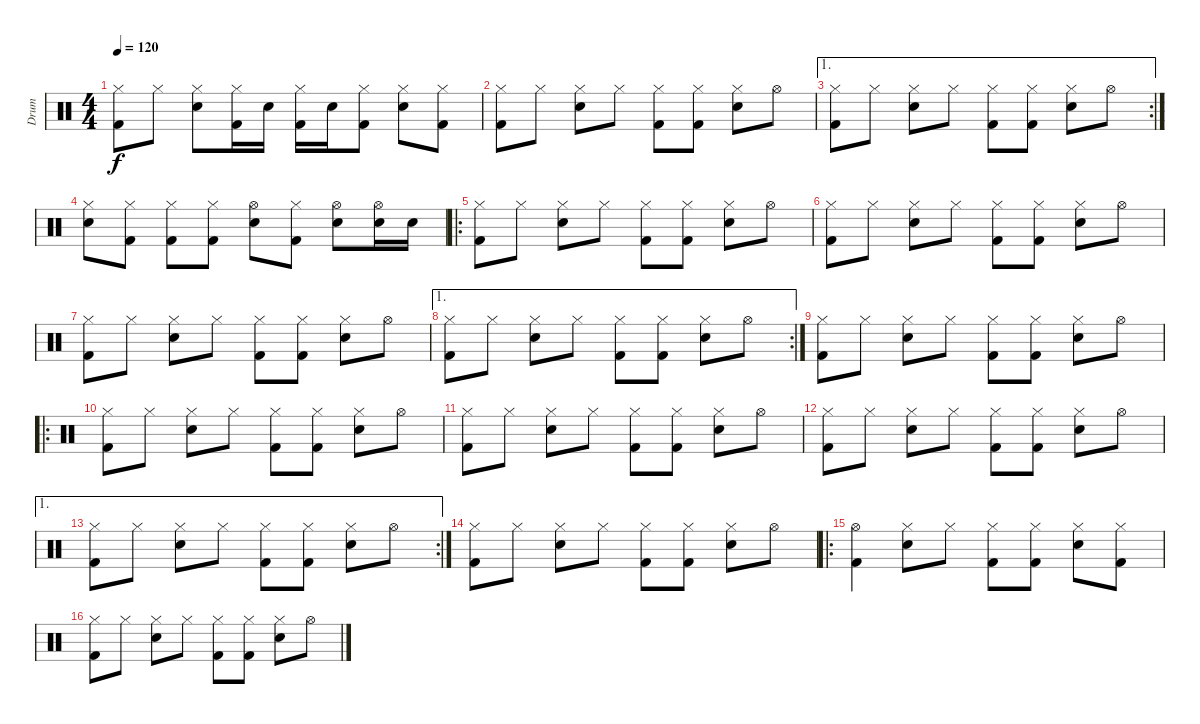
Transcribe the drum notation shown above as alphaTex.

\track ("Drum" "Drum") {instrument percussion}
\staff {score}
\articulation defaults
\ts (4 4)
\tempo 120
\clef neutral
\ks c
("Hi-Hat (closed)" "Kick (hit) 2").8{dy f} "Hi-Hat (closed)".8 ("Hi-Hat (closed)" "Snare (hit) 2").8 ("Hi-Hat (closed)" "Kick (hit) 2").16 "Snare (hit) 2".16 ("Hi-Hat (closed)" "Kick (hit) 2").16 "Snare (hit) 2".16 ("Hi-Hat (closed)" "Kick (hit) 2").8 ("Hi-Hat (closed)" "Snare (hit) 2").8 ("Hi-Hat (closed)" "Kick (hit) 2").8 |
("Hi-Hat (closed)" "Kick (hit) 2").8 "Hi-Hat (closed)".8 ("Hi-Hat (closed)" "Snare (hit) 2").8 "Hi-Hat (closed)".8 ("Hi-Hat (closed)" "Kick (hit) 2").8 ("Hi-Hat (closed)" "Kick (hit) 2").8 ("Hi-Hat (closed)" "Snare (hit) 2").8 "Hi-Hat (open)".8 |
\ae 1
\rc 2
("Hi-Hat (closed)" "Kick (hit) 2").8 "Hi-Hat (closed)".8 ("Hi-Hat (closed)" "Snare (hit) 2").8 "Hi-Hat (closed)".8 ("Hi-Hat (closed)" "Kick (hit) 2").8 ("Hi-Hat (closed)" "Kick (hit) 2").8 ("Hi-Hat (closed)" "Snare (hit) 2").8 "Hi-Hat (open)".8 |
("Hi-Hat (closed)" "Snare (hit) 2").8 ("Hi-Hat (closed)" "Kick (hit) 2").8 ("Hi-Hat (closed)" "Kick (hit) 2").8 ("Hi-Hat (closed)" "Kick (hit) 2").8 ("Hi-Hat (open)" "Snare (hit) 2").8 ("Hi-Hat (closed)" "Kick (hit) 2").8 ("Hi-Hat (open)" "Snare (hit) 2").8 ("Hi-Hat (open)" "Snare (hit) 2").16 "Snare (hit) 2".16 |
\ro
("Hi-Hat (closed)" "Kick (hit) 2").8 "Hi-Hat (closed)".8 ("Hi-Hat (closed)" "Snare (hit) 2").8 "Hi-Hat (closed)".8 ("Hi-Hat (closed)" "Kick (hit) 2").8 ("Hi-Hat (closed)" "Kick (hit) 2").8 ("Hi-Hat (closed)" "Snare (hit) 2").8 "Hi-Hat (open)".8 |
("Hi-Hat (closed)" "Kick (hit) 2").8 "Hi-Hat (closed)".8 ("Hi-Hat (closed)" "Snare (hit) 2").8 "Hi-Hat (closed)".8 ("Hi-Hat (closed)" "Kick (hit) 2").8 ("Hi-Hat (closed)" "Kick (hit) 2").8 ("Hi-Hat (closed)" "Snare (hit) 2").8 "Hi-Hat (open)".8 |
("Hi-Hat (closed)" "Kick (hit) 2").8 "Hi-Hat (closed)".8 ("Hi-Hat (closed)" "Snare (hit) 2").8 "Hi-Hat (closed)".8 ("Hi-Hat (closed)" "Kick (hit) 2").8 ("Hi-Hat (closed)" "Kick (hit) 2").8 ("Hi-Hat (closed)" "Snare (hit) 2").8 "Hi-Hat (open)".8 |
\ae 1
\rc 2
("Hi-Hat (closed)" "Kick (hit) 2").8 "Hi-Hat (closed)".8 ("Hi-Hat (closed)" "Snare (hit) 2").8 "Hi-Hat (closed)".8 ("Hi-Hat (closed)" "Kick (hit) 2").8 ("Hi-Hat (closed)" "Kick (hit) 2").8 ("Hi-Hat (closed)" "Snare (hit) 2").8 "Hi-Hat (open)".8 |
("Hi-Hat (closed)" "Kick (hit) 2").8 "Hi-Hat (closed)".8 ("Hi-Hat (closed)" "Snare (hit) 2").8 "Hi-Hat (closed)".8 ("Hi-Hat (closed)" "Kick (hit) 2").8 ("Hi-Hat (closed)" "Kick (hit) 2").8 ("Hi-Hat (closed)" "Snare (hit) 2").8 "Hi-Hat (open)".8 |
\ro
("Hi-Hat (closed)" "Kick (hit) 2").8 "Hi-Hat (closed)".8 ("Hi-Hat (closed)" "Snare (hit) 2").8 "Hi-Hat (closed)".8 ("Hi-Hat (closed)" "Kick (hit) 2").8 ("Hi-Hat (closed)" "Kick (hit) 2").8 ("Hi-Hat (closed)" "Snare (hit) 2").8 "Hi-Hat (open)".8 |
("Hi-Hat (closed)" "Kick (hit) 2").8 "Hi-Hat (closed)".8 ("Hi-Hat (closed)" "Snare (hit) 2").8 "Hi-Hat (closed)".8 ("Hi-Hat (closed)" "Kick (hit) 2").8 ("Hi-Hat (closed)" "Kick (hit) 2").8 ("Hi-Hat (closed)" "Snare (hit) 2").8 "Hi-Hat (open)".8 |
("Hi-Hat (closed)" "Kick (hit) 2").8 "Hi-Hat (closed)".8 ("Hi-Hat (closed)" "Snare (hit) 2").8 "Hi-Hat (closed)".8 ("Hi-Hat (closed)" "Kick (hit) 2").8 ("Hi-Hat (closed)" "Kick (hit) 2").8 ("Hi-Hat (closed)" "Snare (hit) 2").8 "Hi-Hat (open)".8 |
\ae 1
\rc 2
("Hi-Hat (closed)" "Kick (hit) 2").8 "Hi-Hat (closed)".8 ("Hi-Hat (closed)" "Snare (hit) 2").8 "Hi-Hat (closed)".8 ("Hi-Hat (closed)" "Kick (hit) 2").8 ("Hi-Hat (closed)" "Kick (hit) 2").8 ("Hi-Hat (closed)" "Snare (hit) 2").8 "Hi-Hat (open)".8 |
("Hi-Hat (closed)" "Kick (hit) 2").8 "Hi-Hat (closed)".8 ("Hi-Hat (closed)" "Snare (hit) 2").8 "Hi-Hat (closed)".8 ("Hi-Hat (closed)" "Kick (hit) 2").8 ("Hi-Hat (closed)" "Kick (hit) 2").8 ("Hi-Hat (closed)" "Snare (hit) 2").8 "Hi-Hat (open)".8 |
\ro
("Hi-Hat (open)" "Kick (hit) 2").4 ("Hi-Hat (closed)" "Snare (hit) 2").8 "Hi-Hat (closed)".8 ("Hi-Hat (closed)" "Kick (hit) 2").8 ("Hi-Hat (closed)" "Kick (hit) 2").8 ("Hi-Hat (closed)" "Snare (hit) 2").8 ("Hi-Hat (closed)" "Kick (hit) 2").8 |
("Hi-Hat (closed)" "Kick (hit) 2").8 "Hi-Hat (closed)".8 ("Hi-Hat (closed)" "Snare (hit) 2").8 "Hi-Hat (closed)".8 ("Hi-Hat (closed)" "Kick (hit) 2").8 ("Hi-Hat (closed)" "Kick (hit) 2").8 ("Hi-Hat (closed)" "Snare (hit) 2").8 "Hi-Hat (open)".8
